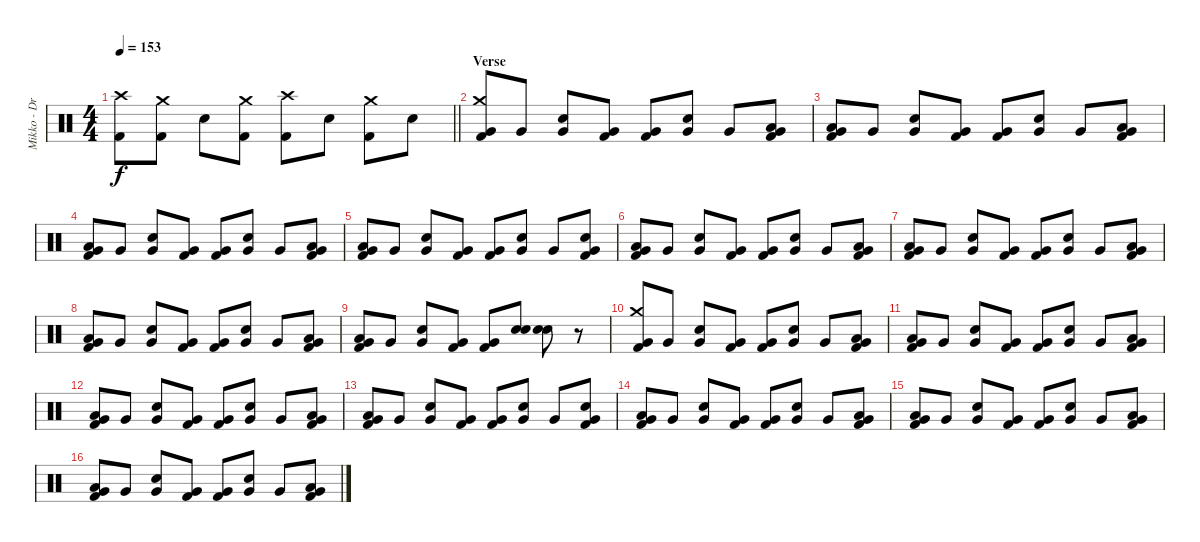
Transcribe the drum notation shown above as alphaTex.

\track ("Mikko - Drums" "Mikko - Dr") {instrument percussion}
\staff {score}
\articulation defaults
\ts (4 4)
\tempo 153
\clef neutral
\barLineRight lightlight
\ks c
("Crash high (hit)" "Kick (hit) 2").8{dy f} ("Crash medium (hit)" "Kick (hit) 2").8 "Snare (hit) 2".8 ("Crash medium (hit)" "Kick (hit) 2").8 ("Crash high (hit)" "Kick (hit) 2").8 "Snare (hit) 2".8 ("Crash medium (hit)" "Kick (hit) 2").8 "Snare (hit) 2".8 |
\section ("" "Verse")
("Crash medium (hit)" "Very Low Tom (hit)" "Kick (hit) 2").8 "Very Low Tom (hit)".8 ("Snare (hit) 2" "Very Low Tom (hit)").8 ("Very Low Tom (hit)" "Kick (hit) 2").8 ("Very Low Tom (hit)" "Kick (hit) 2").8 ("Snare (hit) 2" "Very Low Tom (hit)").8 "Very Low Tom (hit)".8 ("Low Tom (hit)" "Very Low Tom (hit)" "Kick (hit) 2").8 |
("Low Tom (hit)" "Very Low Tom (hit)" "Kick (hit) 2").8 "Very Low Tom (hit)".8 ("Snare (hit) 2" "Very Low Tom (hit)").8 ("Very Low Tom (hit)" "Kick (hit) 2").8 ("Very Low Tom (hit)" "Kick (hit) 2").8 ("Snare (hit) 2" "Very Low Tom (hit)").8 "Very Low Tom (hit)".8 ("Low Tom (hit)" "Very Low Tom (hit)" "Kick (hit) 2").8 |
("Low Tom (hit)" "Very Low Tom (hit)" "Kick (hit) 2").8 "Very Low Tom (hit)".8 ("Snare (hit) 2" "Very Low Tom (hit)").8 ("Very Low Tom (hit)" "Kick (hit) 2").8 ("Very Low Tom (hit)" "Kick (hit) 2").8 ("Snare (hit) 2" "Very Low Tom (hit)").8 "Very Low Tom (hit)".8 ("Low Tom (hit)" "Very Low Tom (hit)" "Kick (hit) 2").8 |
("Low Tom (hit)" "Very Low Tom (hit)" "Kick (hit) 2").8 "Very Low Tom (hit)".8 ("Snare (hit) 2" "Very Low Tom (hit)").8 ("Very Low Tom (hit)" "Kick (hit) 2").8 ("Very Low Tom (hit)" "Kick (hit) 2").8 ("Snare (hit) 2" "Very Low Tom (hit)").8 "Very Low Tom (hit)".8 ("Snare (hit) 2" "Very Low Tom (hit)" "Kick (hit) 2").8 |
("Low Tom (hit)" "Very Low Tom (hit)" "Kick (hit) 2").8 "Very Low Tom (hit)".8 ("Snare (hit) 2" "Very Low Tom (hit)").8 ("Very Low Tom (hit)" "Kick (hit) 2").8 ("Very Low Tom (hit)" "Kick (hit) 2").8 ("Snare (hit) 2" "Very Low Tom (hit)").8 "Very Low Tom (hit)".8 ("Low Tom (hit)" "Very Low Tom (hit)" "Kick (hit) 2").8 |
("Low Tom (hit)" "Very Low Tom (hit)" "Kick (hit) 2").8 "Very Low Tom (hit)".8 ("Snare (hit) 2" "Very Low Tom (hit)").8 ("Very Low Tom (hit)" "Kick (hit) 2").8 ("Very Low Tom (hit)" "Kick (hit) 2").8 ("Snare (hit) 2" "Very Low Tom (hit)").8 "Very Low Tom (hit)".8 ("Low Tom (hit)" "Very Low Tom (hit)" "Kick (hit) 2").8 |
("Low Tom (hit)" "Very Low Tom (hit)" "Kick (hit) 2").8 "Very Low Tom (hit)".8 ("Snare (hit) 2" "Very Low Tom (hit)").8 ("Very Low Tom (hit)" "Kick (hit) 2").8 ("Very Low Tom (hit)" "Kick (hit) 2").8 ("Snare (hit) 2" "Very Low Tom (hit)").8 "Very Low Tom (hit)".8 ("Low Tom (hit)" "Very Low Tom (hit)" "Kick (hit) 2").8 |
("Low Tom (hit)" "Very Low Tom (hit)" "Kick (hit) 2").8 "Very Low Tom (hit)".8 ("Snare (hit) 2" "Very Low Tom (hit)").8 ("Very Low Tom (hit)" "Kick (hit) 2").8 ("Very Low Tom (hit)" "Kick (hit) 2").8 ("Hand Clap (hit)" "Snare (hit) 2").8 ("Hand Clap (hit)" "Snare (hit) 2").8 r.8 |
("Crash medium (hit)" "Very Low Tom (hit)" "Kick (hit) 2").8 "Very Low Tom (hit)".8 ("Snare (hit) 2" "Very Low Tom (hit)").8 ("Very Low Tom (hit)" "Kick (hit) 2").8 ("Very Low Tom (hit)" "Kick (hit) 2").8 ("Snare (hit) 2" "Very Low Tom (hit)").8 "Very Low Tom (hit)".8 ("Low Tom (hit)" "Very Low Tom (hit)" "Kick (hit) 2").8 |
("Low Tom (hit)" "Very Low Tom (hit)" "Kick (hit) 2").8 "Very Low Tom (hit)".8 ("Snare (hit) 2" "Very Low Tom (hit)").8 ("Very Low Tom (hit)" "Kick (hit) 2").8 ("Very Low Tom (hit)" "Kick (hit) 2").8 ("Snare (hit) 2" "Very Low Tom (hit)").8 "Very Low Tom (hit)".8 ("Low Tom (hit)" "Very Low Tom (hit)" "Kick (hit) 2").8 |
("Low Tom (hit)" "Very Low Tom (hit)" "Kick (hit) 2").8 "Very Low Tom (hit)".8 ("Snare (hit) 2" "Very Low Tom (hit)").8 ("Very Low Tom (hit)" "Kick (hit) 2").8 ("Very Low Tom (hit)" "Kick (hit) 2").8 ("Snare (hit) 2" "Very Low Tom (hit)").8 "Very Low Tom (hit)".8 ("Low Tom (hit)" "Very Low Tom (hit)" "Kick (hit) 2").8 |
("Low Tom (hit)" "Very Low Tom (hit)" "Kick (hit) 2").8 "Very Low Tom (hit)".8 ("Snare (hit) 2" "Very Low Tom (hit)").8 ("Very Low Tom (hit)" "Kick (hit) 2").8 ("Very Low Tom (hit)" "Kick (hit) 2").8 ("Snare (hit) 2" "Very Low Tom (hit)").8 "Very Low Tom (hit)".8 ("Snare (hit) 2" "Very Low Tom (hit)" "Kick (hit) 2").8 |
("Low Tom (hit)" "Very Low Tom (hit)" "Kick (hit) 2").8 "Very Low Tom (hit)".8 ("Snare (hit) 2" "Very Low Tom (hit)").8 ("Very Low Tom (hit)" "Kick (hit) 2").8 ("Very Low Tom (hit)" "Kick (hit) 2").8 ("Snare (hit) 2" "Very Low Tom (hit)").8 "Very Low Tom (hit)".8 ("Low Tom (hit)" "Very Low Tom (hit)" "Kick (hit) 2").8 |
("Low Tom (hit)" "Very Low Tom (hit)" "Kick (hit) 2").8 "Very Low Tom (hit)".8 ("Snare (hit) 2" "Very Low Tom (hit)").8 ("Very Low Tom (hit)" "Kick (hit) 2").8 ("Very Low Tom (hit)" "Kick (hit) 2").8 ("Snare (hit) 2" "Very Low Tom (hit)").8 "Very Low Tom (hit)".8 ("Low Tom (hit)" "Very Low Tom (hit)" "Kick (hit) 2").8 |
("Low Tom (hit)" "Very Low Tom (hit)" "Kick (hit) 2").8 "Very Low Tom (hit)".8 ("Snare (hit) 2" "Very Low Tom (hit)").8 ("Very Low Tom (hit)" "Kick (hit) 2").8 ("Very Low Tom (hit)" "Kick (hit) 2").8 ("Snare (hit) 2" "Very Low Tom (hit)").8 "Very Low Tom (hit)".8 ("Low Tom (hit)" "Very Low Tom (hit)" "Kick (hit) 2").8
